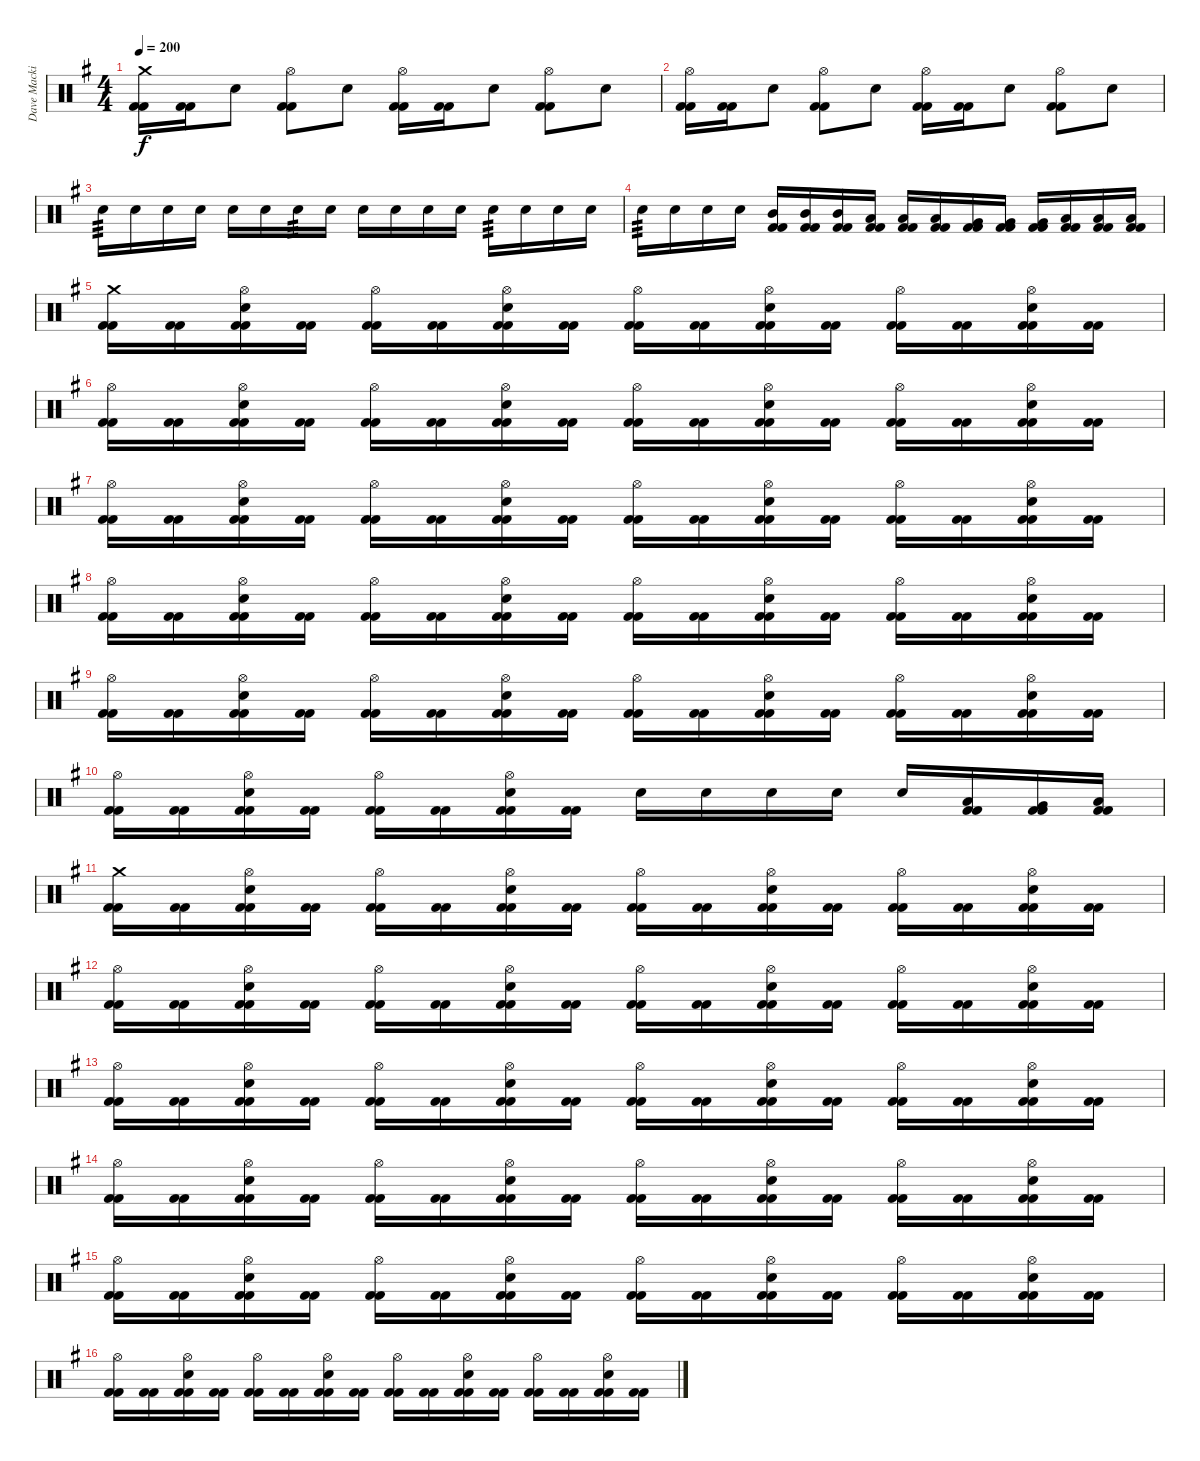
\track ("Dave Mackintosh" "Dave Macki") {instrument percussion}
\staff {score}
\articulation defaults
\ts (4 4)
\tempo 200
\clef neutral
\ks g
("Crash medium (hit)" "Kick (hit) 2" "Kick (hit) 2").16{dy f} ("Kick (hit) 2" "Kick (hit) 2").16 "Electric Snare (hit)".8 ("Hi-Hat (open)" "Kick (hit) 2" "Kick (hit) 2").8 "Electric Snare (hit)".8 ("Hi-Hat (open)" "Kick (hit) 2" "Kick (hit) 2").16 ("Kick (hit) 2" "Kick (hit) 2").16 "Electric Snare (hit)".8 ("Hi-Hat (open)" "Kick (hit) 2" "Kick (hit) 2").8 "Electric Snare (hit)".8 |
("Hi-Hat (open)" "Kick (hit) 2" "Kick (hit) 2").16 ("Kick (hit) 2" "Kick (hit) 2").16 "Electric Snare (hit)".8 ("Hi-Hat (open)" "Kick (hit) 2" "Kick (hit) 2").8 "Electric Snare (hit)".8 ("Hi-Hat (open)" "Kick (hit) 2" "Kick (hit) 2").16 ("Kick (hit) 2" "Kick (hit) 2").16 "Electric Snare (hit)".8 ("Hi-Hat (open)" "Kick (hit) 2" "Kick (hit) 2").8 "Electric Snare (hit)".8 |
"Electric Snare (hit)".16{tp 3} "Electric Snare (hit)".16 "Electric Snare (hit)".16 "Electric Snare (hit)".16 "Electric Snare (hit)".16 "Electric Snare (hit)".16 "Electric Snare (hit)".16{tp 3} "Electric Snare (hit)".16 "Electric Snare (hit)".16 "Electric Snare (hit)".16 "Electric Snare (hit)".16 "Electric Snare (hit)".16 "Electric Snare (hit)".16{tp 3} "Electric Snare (hit)".16 "Electric Snare (hit)".16 "Electric Snare (hit)".16 |
"Electric Snare (hit)".16{tp 3} "Electric Snare (hit)".16 "Electric Snare (hit)".16 "Electric Snare (hit)".16 ("Mid Tom (hit)" "Kick (hit) 2" "Kick (hit) 2").16 ("Mid Tom (hit)" "Kick (hit) 2" "Kick (hit) 2").16 ("Mid Tom (hit)" "Kick (hit) 2" "Kick (hit) 2").16 ("Low Tom (hit)" "Kick (hit) 2" "Kick (hit) 2").16 ("Low Tom (hit)" "Kick (hit) 2" "Kick (hit) 2").16 ("Low Tom (hit)" "Kick (hit) 2" "Kick (hit) 2").16 ("Very Low Tom (hit)" "Kick (hit) 2" "Kick (hit) 2").16 ("Very Low Tom (hit)" "Kick (hit) 2" "Kick (hit) 2").16 ("Very Low Tom (hit)" "Kick (hit) 2" "Kick (hit) 2").16 ("Low Floor Tom (hit)" "Kick (hit) 2" "Kick (hit) 2").16 ("Low Floor Tom (hit)" "Kick (hit) 2" "Kick (hit) 2").16 ("Low Floor Tom (hit)" "Kick (hit) 2" "Kick (hit) 2").16 |
("Crash medium (hit)" "Kick (hit) 2" "Kick (hit) 2").16 ("Kick (hit) 2" "Kick (hit) 2").16 ("Hi-Hat (open)" "Electric Snare (hit)" "Kick (hit) 2" "Kick (hit) 2").16 ("Kick (hit) 2" "Kick (hit) 2").16 ("Hi-Hat (open)" "Kick (hit) 2" "Kick (hit) 2").16 ("Kick (hit) 2" "Kick (hit) 2").16 ("Hi-Hat (open)" "Electric Snare (hit)" "Kick (hit) 2" "Kick (hit) 2").16 ("Kick (hit) 2" "Kick (hit) 2").16 ("Hi-Hat (open)" "Kick (hit) 2" "Kick (hit) 2").16 ("Kick (hit) 2" "Kick (hit) 2").16 ("Hi-Hat (open)" "Electric Snare (hit)" "Kick (hit) 2" "Kick (hit) 2").16 ("Kick (hit) 2" "Kick (hit) 2").16 ("Hi-Hat (open)" "Kick (hit) 2" "Kick (hit) 2").16 ("Kick (hit) 2" "Kick (hit) 2").16 ("Hi-Hat (open)" "Electric Snare (hit)" "Kick (hit) 2" "Kick (hit) 2").16 ("Kick (hit) 2" "Kick (hit) 2").16 |
("Hi-Hat (open)" "Kick (hit) 2" "Kick (hit) 2").16 ("Kick (hit) 2" "Kick (hit) 2").16 ("Hi-Hat (open)" "Electric Snare (hit)" "Kick (hit) 2" "Kick (hit) 2").16 ("Kick (hit) 2" "Kick (hit) 2").16 ("Hi-Hat (open)" "Kick (hit) 2" "Kick (hit) 2").16 ("Kick (hit) 2" "Kick (hit) 2").16 ("Hi-Hat (open)" "Electric Snare (hit)" "Kick (hit) 2" "Kick (hit) 2").16 ("Kick (hit) 2" "Kick (hit) 2").16 ("Hi-Hat (open)" "Kick (hit) 2" "Kick (hit) 2").16 ("Kick (hit) 2" "Kick (hit) 2").16 ("Hi-Hat (open)" "Electric Snare (hit)" "Kick (hit) 2" "Kick (hit) 2").16 ("Kick (hit) 2" "Kick (hit) 2").16 ("Hi-Hat (open)" "Kick (hit) 2" "Kick (hit) 2").16 ("Kick (hit) 2" "Kick (hit) 2").16 ("Hi-Hat (open)" "Electric Snare (hit)" "Kick (hit) 2" "Kick (hit) 2").16 ("Kick (hit) 2" "Kick (hit) 2").16 |
("Hi-Hat (open)" "Kick (hit) 2" "Kick (hit) 2").16 ("Kick (hit) 2" "Kick (hit) 2").16 ("Hi-Hat (open)" "Electric Snare (hit)" "Kick (hit) 2" "Kick (hit) 2").16 ("Kick (hit) 2" "Kick (hit) 2").16 ("Hi-Hat (open)" "Kick (hit) 2" "Kick (hit) 2").16 ("Kick (hit) 2" "Kick (hit) 2").16 ("Hi-Hat (open)" "Electric Snare (hit)" "Kick (hit) 2" "Kick (hit) 2").16 ("Kick (hit) 2" "Kick (hit) 2").16 ("Hi-Hat (open)" "Kick (hit) 2" "Kick (hit) 2").16 ("Kick (hit) 2" "Kick (hit) 2").16 ("Hi-Hat (open)" "Electric Snare (hit)" "Kick (hit) 2" "Kick (hit) 2").16 ("Kick (hit) 2" "Kick (hit) 2").16 ("Hi-Hat (open)" "Kick (hit) 2" "Kick (hit) 2").16 ("Kick (hit) 2" "Kick (hit) 2").16 ("Hi-Hat (open)" "Electric Snare (hit)" "Kick (hit) 2" "Kick (hit) 2").16 ("Kick (hit) 2" "Kick (hit) 2").16 |
("Hi-Hat (open)" "Kick (hit) 2" "Kick (hit) 2").16 ("Kick (hit) 2" "Kick (hit) 2").16 ("Hi-Hat (open)" "Electric Snare (hit)" "Kick (hit) 2" "Kick (hit) 2").16 ("Kick (hit) 2" "Kick (hit) 2").16 ("Hi-Hat (open)" "Kick (hit) 2" "Kick (hit) 2").16 ("Kick (hit) 2" "Kick (hit) 2").16 ("Hi-Hat (open)" "Electric Snare (hit)" "Kick (hit) 2" "Kick (hit) 2").16 ("Kick (hit) 2" "Kick (hit) 2").16 ("Hi-Hat (open)" "Kick (hit) 2" "Kick (hit) 2").16 ("Kick (hit) 2" "Kick (hit) 2").16 ("Hi-Hat (open)" "Electric Snare (hit)" "Kick (hit) 2" "Kick (hit) 2").16 ("Kick (hit) 2" "Kick (hit) 2").16 ("Hi-Hat (open)" "Kick (hit) 2" "Kick (hit) 2").16 ("Kick (hit) 2" "Kick (hit) 2").16 ("Hi-Hat (open)" "Electric Snare (hit)" "Kick (hit) 2" "Kick (hit) 2").16 ("Kick (hit) 2" "Kick (hit) 2").16 |
("Hi-Hat (open)" "Kick (hit) 2" "Kick (hit) 2").16 ("Kick (hit) 2" "Kick (hit) 2").16 ("Hi-Hat (open)" "Electric Snare (hit)" "Kick (hit) 2" "Kick (hit) 2").16 ("Kick (hit) 2" "Kick (hit) 2").16 ("Hi-Hat (open)" "Kick (hit) 2" "Kick (hit) 2").16 ("Kick (hit) 2" "Kick (hit) 2").16 ("Hi-Hat (open)" "Electric Snare (hit)" "Kick (hit) 2" "Kick (hit) 2").16 ("Kick (hit) 2" "Kick (hit) 2").16 ("Hi-Hat (open)" "Kick (hit) 2" "Kick (hit) 2").16 ("Kick (hit) 2" "Kick (hit) 2").16 ("Hi-Hat (open)" "Electric Snare (hit)" "Kick (hit) 2" "Kick (hit) 2").16 ("Kick (hit) 2" "Kick (hit) 2").16 ("Hi-Hat (open)" "Kick (hit) 2" "Kick (hit) 2").16 ("Kick (hit) 2" "Kick (hit) 2").16 ("Hi-Hat (open)" "Electric Snare (hit)" "Kick (hit) 2" "Kick (hit) 2").16 ("Kick (hit) 2" "Kick (hit) 2").16 |
("Hi-Hat (open)" "Kick (hit) 2" "Kick (hit) 2").16 ("Kick (hit) 2" "Kick (hit) 2").16 ("Hi-Hat (open)" "Electric Snare (hit)" "Kick (hit) 2" "Kick (hit) 2").16 ("Kick (hit) 2" "Kick (hit) 2").16 ("Hi-Hat (open)" "Kick (hit) 2" "Kick (hit) 2").16 ("Kick (hit) 2" "Kick (hit) 2").16 ("Hi-Hat (open)" "Electric Snare (hit)" "Kick (hit) 2" "Kick (hit) 2").16 ("Kick (hit) 2" "Kick (hit) 2").16 "Electric Snare (hit)".16 "Electric Snare (hit)".16 "Electric Snare (hit)".16 "Electric Snare (hit)".16 "Electric Snare (hit)".16 ("Low Tom (hit)" "Kick (hit) 2" "Kick (hit) 2").16 ("Very Low Tom (hit)" "Kick (hit) 2" "Kick (hit) 2").16 ("Low Floor Tom (hit)" "Kick (hit) 2" "Kick (hit) 2").16 |
("Crash medium (hit)" "Kick (hit) 2" "Kick (hit) 2").16 ("Kick (hit) 2" "Kick (hit) 2").16 ("Hi-Hat (open)" "Electric Snare (hit)" "Kick (hit) 2" "Kick (hit) 2").16 ("Kick (hit) 2" "Kick (hit) 2").16 ("Hi-Hat (open)" "Kick (hit) 2" "Kick (hit) 2").16 ("Kick (hit) 2" "Kick (hit) 2").16 ("Hi-Hat (open)" "Electric Snare (hit)" "Kick (hit) 2" "Kick (hit) 2").16 ("Kick (hit) 2" "Kick (hit) 2").16 ("Hi-Hat (open)" "Kick (hit) 2" "Kick (hit) 2").16 ("Kick (hit) 2" "Kick (hit) 2").16 ("Hi-Hat (open)" "Electric Snare (hit)" "Kick (hit) 2" "Kick (hit) 2").16 ("Kick (hit) 2" "Kick (hit) 2").16 ("Hi-Hat (open)" "Kick (hit) 2" "Kick (hit) 2").16 ("Kick (hit) 2" "Kick (hit) 2").16 ("Hi-Hat (open)" "Electric Snare (hit)" "Kick (hit) 2" "Kick (hit) 2").16 ("Kick (hit) 2" "Kick (hit) 2").16 |
("Hi-Hat (open)" "Kick (hit) 2" "Kick (hit) 2").16 ("Kick (hit) 2" "Kick (hit) 2").16 ("Hi-Hat (open)" "Electric Snare (hit)" "Kick (hit) 2" "Kick (hit) 2").16 ("Kick (hit) 2" "Kick (hit) 2").16 ("Hi-Hat (open)" "Kick (hit) 2" "Kick (hit) 2").16 ("Kick (hit) 2" "Kick (hit) 2").16 ("Hi-Hat (open)" "Electric Snare (hit)" "Kick (hit) 2" "Kick (hit) 2").16 ("Kick (hit) 2" "Kick (hit) 2").16 ("Hi-Hat (open)" "Kick (hit) 2" "Kick (hit) 2").16 ("Kick (hit) 2" "Kick (hit) 2").16 ("Hi-Hat (open)" "Electric Snare (hit)" "Kick (hit) 2" "Kick (hit) 2").16 ("Kick (hit) 2" "Kick (hit) 2").16 ("Hi-Hat (open)" "Kick (hit) 2" "Kick (hit) 2").16 ("Kick (hit) 2" "Kick (hit) 2").16 ("Hi-Hat (open)" "Electric Snare (hit)" "Kick (hit) 2" "Kick (hit) 2").16 ("Kick (hit) 2" "Kick (hit) 2").16 |
("Hi-Hat (open)" "Kick (hit) 2" "Kick (hit) 2").16 ("Kick (hit) 2" "Kick (hit) 2").16 ("Hi-Hat (open)" "Electric Snare (hit)" "Kick (hit) 2" "Kick (hit) 2").16 ("Kick (hit) 2" "Kick (hit) 2").16 ("Hi-Hat (open)" "Kick (hit) 2" "Kick (hit) 2").16 ("Kick (hit) 2" "Kick (hit) 2").16 ("Hi-Hat (open)" "Electric Snare (hit)" "Kick (hit) 2" "Kick (hit) 2").16 ("Kick (hit) 2" "Kick (hit) 2").16 ("Hi-Hat (open)" "Kick (hit) 2" "Kick (hit) 2").16 ("Kick (hit) 2" "Kick (hit) 2").16 ("Hi-Hat (open)" "Electric Snare (hit)" "Kick (hit) 2" "Kick (hit) 2").16 ("Kick (hit) 2" "Kick (hit) 2").16 ("Hi-Hat (open)" "Kick (hit) 2" "Kick (hit) 2").16 ("Kick (hit) 2" "Kick (hit) 2").16 ("Hi-Hat (open)" "Electric Snare (hit)" "Kick (hit) 2" "Kick (hit) 2").16 ("Kick (hit) 2" "Kick (hit) 2").16 |
("Hi-Hat (open)" "Kick (hit) 2" "Kick (hit) 2").16 ("Kick (hit) 2" "Kick (hit) 2").16 ("Hi-Hat (open)" "Electric Snare (hit)" "Kick (hit) 2" "Kick (hit) 2").16 ("Kick (hit) 2" "Kick (hit) 2").16 ("Hi-Hat (open)" "Kick (hit) 2" "Kick (hit) 2").16 ("Kick (hit) 2" "Kick (hit) 2").16 ("Hi-Hat (open)" "Electric Snare (hit)" "Kick (hit) 2" "Kick (hit) 2").16 ("Kick (hit) 2" "Kick (hit) 2").16 ("Hi-Hat (open)" "Kick (hit) 2" "Kick (hit) 2").16 ("Kick (hit) 2" "Kick (hit) 2").16 ("Hi-Hat (open)" "Electric Snare (hit)" "Kick (hit) 2" "Kick (hit) 2").16 ("Kick (hit) 2" "Kick (hit) 2").16 ("Hi-Hat (open)" "Kick (hit) 2" "Kick (hit) 2").16 ("Kick (hit) 2" "Kick (hit) 2").16 ("Hi-Hat (open)" "Electric Snare (hit)" "Kick (hit) 2" "Kick (hit) 2").16 ("Kick (hit) 2" "Kick (hit) 2").16 |
("Hi-Hat (open)" "Kick (hit) 2" "Kick (hit) 2").16 ("Kick (hit) 2" "Kick (hit) 2").16 ("Hi-Hat (open)" "Electric Snare (hit)" "Kick (hit) 2" "Kick (hit) 2").16 ("Kick (hit) 2" "Kick (hit) 2").16 ("Hi-Hat (open)" "Kick (hit) 2" "Kick (hit) 2").16 ("Kick (hit) 2" "Kick (hit) 2").16 ("Hi-Hat (open)" "Electric Snare (hit)" "Kick (hit) 2" "Kick (hit) 2").16 ("Kick (hit) 2" "Kick (hit) 2").16 ("Hi-Hat (open)" "Kick (hit) 2" "Kick (hit) 2").16 ("Kick (hit) 2" "Kick (hit) 2").16 ("Hi-Hat (open)" "Electric Snare (hit)" "Kick (hit) 2" "Kick (hit) 2").16 ("Kick (hit) 2" "Kick (hit) 2").16 ("Hi-Hat (open)" "Kick (hit) 2" "Kick (hit) 2").16 ("Kick (hit) 2" "Kick (hit) 2").16 ("Hi-Hat (open)" "Electric Snare (hit)" "Kick (hit) 2" "Kick (hit) 2").16 ("Kick (hit) 2" "Kick (hit) 2").16 |
("Hi-Hat (open)" "Kick (hit) 2" "Kick (hit) 2").16 ("Kick (hit) 2" "Kick (hit) 2").16 ("Hi-Hat (open)" "Electric Snare (hit)" "Kick (hit) 2" "Kick (hit) 2").16 ("Kick (hit) 2" "Kick (hit) 2").16 ("Hi-Hat (open)" "Kick (hit) 2" "Kick (hit) 2").16 ("Kick (hit) 2" "Kick (hit) 2").16 ("Hi-Hat (open)" "Electric Snare (hit)" "Kick (hit) 2" "Kick (hit) 2").16 ("Kick (hit) 2" "Kick (hit) 2").16 ("Hi-Hat (open)" "Kick (hit) 2" "Kick (hit) 2").16 ("Kick (hit) 2" "Kick (hit) 2").16 ("Hi-Hat (open)" "Electric Snare (hit)" "Kick (hit) 2" "Kick (hit) 2").16 ("Kick (hit) 2" "Kick (hit) 2").16 ("Hi-Hat (open)" "Kick (hit) 2" "Kick (hit) 2").16 ("Kick (hit) 2" "Kick (hit) 2").16 ("Hi-Hat (open)" "Electric Snare (hit)" "Kick (hit) 2" "Kick (hit) 2").16 ("Kick (hit) 2" "Kick (hit) 2").16
